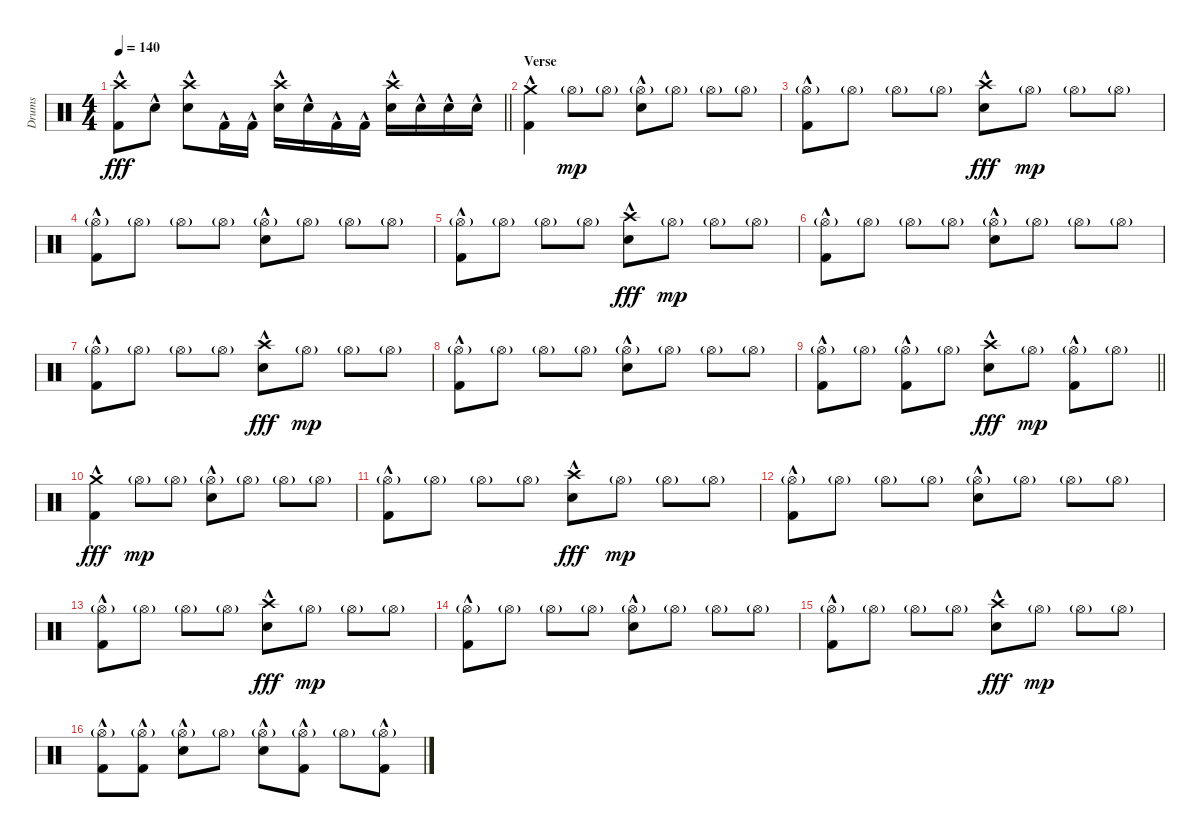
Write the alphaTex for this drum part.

\track ("Drums" "Drums") {instrument percussion}
\staff {score}
\articulation defaults
\ts (4 4)
\tempo 140
\clef neutral
\barLineRight lightlight
\ks c
("Kick (hit) 2"{hac} "Crash high (hit)").8{dy fff} "Snare (hit) 2"{hac}.8 ("Snare (hit) 2"{hac} "Crash high (hit)").8 "Kick (hit) 2"{hac}.16 "Kick (hit) 2"{hac}.16 ("Snare (hit) 2"{hac} "Crash high (hit)").16 "Snare (hit) 2"{hac}.16 "Kick (hit) 2"{hac}.16 "Kick (hit) 2"{hac}.16 ("Snare (hit) 2"{hac} "Crash high (hit)").16 "Snare (hit) 2"{hac}.16 "Snare (hit) 2"{hac}.16 "Snare (hit) 2"{hac}.16 |
\section ("" "Verse")
("Kick (hit) 2"{hac} "Crash medium (hit)").4 "Hi-Hat (open)"{g}.8{dy mp} "Hi-Hat (open)"{g}.8 ("Snare (hit) 2"{hac} "Hi-Hat (open)"{g}).8 "Hi-Hat (open)"{g}.8 "Hi-Hat (open)"{g}.8 "Hi-Hat (open)"{g}.8 |
("Kick (hit) 2"{hac} "Hi-Hat (open)"{g}).8 "Hi-Hat (open)"{g}.8 "Hi-Hat (open)"{g}.8 "Hi-Hat (open)"{g}.8 ("Snare (hit) 2"{hac} "Crash high (hit)").8{dy fff} "Hi-Hat (open)"{g}.8{dy mp} "Hi-Hat (open)"{g}.8 "Hi-Hat (open)"{g}.8 |
("Kick (hit) 2"{hac} "Hi-Hat (open)"{g}).8 "Hi-Hat (open)"{g}.8 "Hi-Hat (open)"{g}.8 "Hi-Hat (open)"{g}.8 ("Snare (hit) 2"{hac} "Hi-Hat (open)"{g}).8 "Hi-Hat (open)"{g}.8 "Hi-Hat (open)"{g}.8 "Hi-Hat (open)"{g}.8 |
("Kick (hit) 2"{hac} "Hi-Hat (open)"{g}).8 "Hi-Hat (open)"{g}.8 "Hi-Hat (open)"{g}.8 "Hi-Hat (open)"{g}.8 ("Snare (hit) 2"{hac} "Crash high (hit)").8{dy fff} "Hi-Hat (open)"{g}.8{dy mp} "Hi-Hat (open)"{g}.8 "Hi-Hat (open)"{g}.8 |
("Kick (hit) 2"{hac} "Hi-Hat (open)"{g}).8 "Hi-Hat (open)"{g}.8 "Hi-Hat (open)"{g}.8 "Hi-Hat (open)"{g}.8 ("Snare (hit) 2"{hac} "Hi-Hat (open)"{g}).8 "Hi-Hat (open)"{g}.8 "Hi-Hat (open)"{g}.8 "Hi-Hat (open)"{g}.8 |
("Kick (hit) 2"{hac} "Hi-Hat (open)"{g}).8 "Hi-Hat (open)"{g}.8 "Hi-Hat (open)"{g}.8 "Hi-Hat (open)"{g}.8 ("Snare (hit) 2"{hac} "Crash high (hit)").8{dy fff} "Hi-Hat (open)"{g}.8{dy mp} "Hi-Hat (open)"{g}.8 "Hi-Hat (open)"{g}.8 |
("Kick (hit) 2"{hac} "Hi-Hat (open)"{g}).8 "Hi-Hat (open)"{g}.8 "Hi-Hat (open)"{g}.8 "Hi-Hat (open)"{g}.8 ("Snare (hit) 2"{hac} "Hi-Hat (open)"{g}).8 "Hi-Hat (open)"{g}.8 "Hi-Hat (open)"{g}.8 "Hi-Hat (open)"{g}.8 |
\barLineRight lightlight
("Kick (hit) 2"{hac} "Hi-Hat (open)"{g}).8 "Hi-Hat (open)"{g}.8 ("Kick (hit) 2"{hac} "Hi-Hat (open)"{g}).8 "Hi-Hat (open)"{g}.8 ("Snare (hit) 2"{hac} "Crash high (hit)").8{dy fff} "Hi-Hat (open)"{g}.8{dy mp} ("Kick (hit) 2"{hac} "Hi-Hat (open)"{g}).8 "Hi-Hat (open)"{g}.8 |
\section ("" "")
("Kick (hit) 2"{hac} "Crash medium (hit)").4{dy fff} "Hi-Hat (open)"{g}.8{dy mp} "Hi-Hat (open)"{g}.8 ("Snare (hit) 2"{hac} "Hi-Hat (open)"{g}).8 "Hi-Hat (open)"{g}.8 "Hi-Hat (open)"{g}.8 "Hi-Hat (open)"{g}.8 |
("Kick (hit) 2"{hac} "Hi-Hat (open)"{g}).8 "Hi-Hat (open)"{g}.8 "Hi-Hat (open)"{g}.8 "Hi-Hat (open)"{g}.8 ("Snare (hit) 2"{hac} "Crash high (hit)").8{dy fff} "Hi-Hat (open)"{g}.8{dy mp} "Hi-Hat (open)"{g}.8 "Hi-Hat (open)"{g}.8 |
("Kick (hit) 2"{hac} "Hi-Hat (open)"{g}).8 "Hi-Hat (open)"{g}.8 "Hi-Hat (open)"{g}.8 "Hi-Hat (open)"{g}.8 ("Snare (hit) 2"{hac} "Hi-Hat (open)"{g}).8 "Hi-Hat (open)"{g}.8 "Hi-Hat (open)"{g}.8 "Hi-Hat (open)"{g}.8 |
("Kick (hit) 2"{hac} "Hi-Hat (open)"{g}).8 "Hi-Hat (open)"{g}.8 "Hi-Hat (open)"{g}.8 "Hi-Hat (open)"{g}.8 ("Snare (hit) 2"{hac} "Crash high (hit)").8{dy fff} "Hi-Hat (open)"{g}.8{dy mp} "Hi-Hat (open)"{g}.8 "Hi-Hat (open)"{g}.8 |
("Kick (hit) 2"{hac} "Hi-Hat (open)"{g}).8 "Hi-Hat (open)"{g}.8 "Hi-Hat (open)"{g}.8 "Hi-Hat (open)"{g}.8 ("Snare (hit) 2"{hac} "Hi-Hat (open)"{g}).8 "Hi-Hat (open)"{g}.8 "Hi-Hat (open)"{g}.8 "Hi-Hat (open)"{g}.8 |
("Kick (hit) 2"{hac} "Hi-Hat (open)"{g}).8 "Hi-Hat (open)"{g}.8 "Hi-Hat (open)"{g}.8 "Hi-Hat (open)"{g}.8 ("Snare (hit) 2"{hac} "Crash high (hit)").8{dy fff} "Hi-Hat (open)"{g}.8{dy mp} "Hi-Hat (open)"{g}.8 "Hi-Hat (open)"{g}.8 |
("Kick (hit) 2"{hac} "Hi-Hat (open)"{g}).8 ("Kick (hit) 2"{hac} "Hi-Hat (open)"{g}).8 ("Snare (hit) 2"{hac} "Hi-Hat (open)"{g}).8 "Hi-Hat (open)"{g}.8 ("Snare (hit) 2"{hac} "Hi-Hat (open)"{g}).8 ("Kick (hit) 2"{hac} "Hi-Hat (open)"{g}).8 "Hi-Hat (open)"{g}.8 ("Kick (hit) 2"{hac} "Hi-Hat (open)"{g}).8
